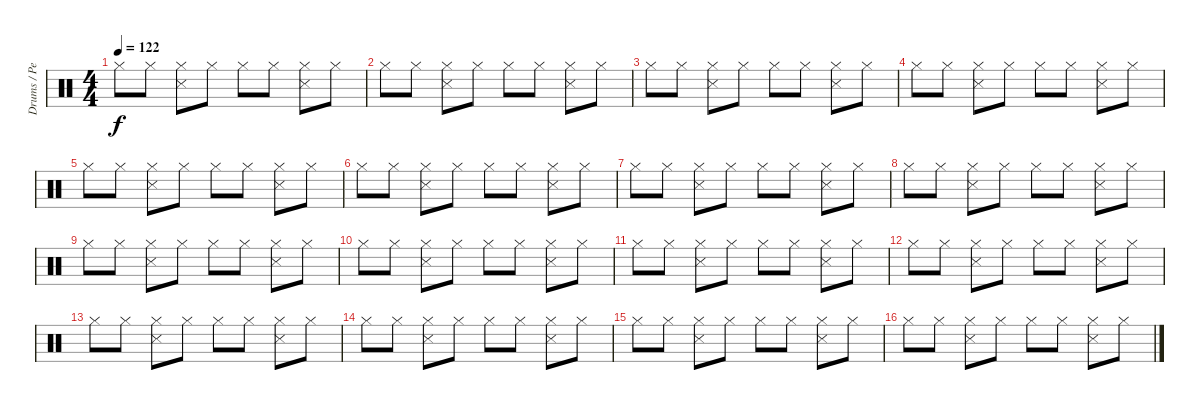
\track ("Drums / Percussion" "Drums / Pe") {instrument percussion}
\staff {score}
\articulation defaults
\ts (4 4)
\tempo 122
\clef neutral
\ks c "Hi-Hat (closed)".8{dy f} "Hi-Hat (closed)".8
("Hi-Hat (closed)" "Snare (side stick) 3").8 "Hi-Hat (closed)".8 "Hi-Hat (closed)".8 "Hi-Hat (closed)".8 ("Hi-Hat (closed)" "Snare (side stick) 3").8 "Hi-Hat (closed)".8 |
"Hi-Hat (closed)".8 "Hi-Hat (closed)".8 ("Hi-Hat (closed)" "Snare (side stick) 3").8 "Hi-Hat (closed)".8 "Hi-Hat (closed)".8 "Hi-Hat (closed)".8 ("Hi-Hat (closed)" "Snare (side stick) 3").8 "Hi-Hat (closed)".8 |
"Hi-Hat (closed)".8 "Hi-Hat (closed)".8 ("Hi-Hat (closed)" "Snare (side stick) 3").8 "Hi-Hat (closed)".8 "Hi-Hat (closed)".8 "Hi-Hat (closed)".8 ("Hi-Hat (closed)" "Snare (side stick) 3").8 "Hi-Hat (closed)".8 |
"Hi-Hat (closed)".8 "Hi-Hat (closed)".8 ("Hi-Hat (closed)" "Snare (side stick) 3").8 "Hi-Hat (closed)".8 "Hi-Hat (closed)".8 "Hi-Hat (closed)".8 ("Hi-Hat (closed)" "Snare (side stick) 3").8 "Hi-Hat (closed)".8 |
"Hi-Hat (closed)".8 "Hi-Hat (closed)".8 ("Hi-Hat (closed)" "Snare (side stick) 3").8 "Hi-Hat (closed)".8 "Hi-Hat (closed)".8 "Hi-Hat (closed)".8 ("Hi-Hat (closed)" "Snare (side stick) 3").8 "Hi-Hat (closed)".8 |
"Hi-Hat (closed)".8 "Hi-Hat (closed)".8 ("Hi-Hat (closed)" "Snare (side stick) 3").8 "Hi-Hat (closed)".8 "Hi-Hat (closed)".8 "Hi-Hat (closed)".8 ("Hi-Hat (closed)" "Snare (side stick) 3").8 "Hi-Hat (closed)".8 |
"Hi-Hat (closed)".8 "Hi-Hat (closed)".8 ("Hi-Hat (closed)" "Snare (side stick) 3").8 "Hi-Hat (closed)".8 "Hi-Hat (closed)".8 "Hi-Hat (closed)".8 ("Hi-Hat (closed)" "Snare (side stick) 3").8 "Hi-Hat (closed)".8 |
"Hi-Hat (closed)".8 "Hi-Hat (closed)".8 ("Hi-Hat (closed)" "Snare (side stick) 3").8 "Hi-Hat (closed)".8 "Hi-Hat (closed)".8 "Hi-Hat (closed)".8 ("Hi-Hat (closed)" "Snare (side stick) 3").8 "Hi-Hat (closed)".8 |
"Hi-Hat (closed)".8 "Hi-Hat (closed)".8 ("Hi-Hat (closed)" "Snare (side stick) 3").8 "Hi-Hat (closed)".8 "Hi-Hat (closed)".8 "Hi-Hat (closed)".8 ("Hi-Hat (closed)" "Snare (side stick) 3").8 "Hi-Hat (closed)".8 |
"Hi-Hat (closed)".8 "Hi-Hat (closed)".8 ("Hi-Hat (closed)" "Snare (side stick) 3").8 "Hi-Hat (closed)".8 "Hi-Hat (closed)".8 "Hi-Hat (closed)".8 ("Hi-Hat (closed)" "Snare (side stick) 3").8 "Hi-Hat (closed)".8 |
"Hi-Hat (closed)".8 "Hi-Hat (closed)".8 ("Hi-Hat (closed)" "Snare (side stick) 3").8 "Hi-Hat (closed)".8 "Hi-Hat (closed)".8 "Hi-Hat (closed)".8 ("Hi-Hat (closed)" "Snare (side stick) 3").8 "Hi-Hat (closed)".8 |
"Hi-Hat (closed)".8 "Hi-Hat (closed)".8 ("Hi-Hat (closed)" "Snare (side stick) 3").8 "Hi-Hat (closed)".8 "Hi-Hat (closed)".8 "Hi-Hat (closed)".8 ("Hi-Hat (closed)" "Snare (side stick) 3").8 "Hi-Hat (closed)".8 |
"Hi-Hat (closed)".8 "Hi-Hat (closed)".8 ("Hi-Hat (closed)" "Snare (side stick) 3").8 "Hi-Hat (closed)".8 "Hi-Hat (closed)".8 "Hi-Hat (closed)".8 ("Hi-Hat (closed)" "Snare (side stick) 3").8 "Hi-Hat (closed)".8 |
"Hi-Hat (closed)".8 "Hi-Hat (closed)".8 ("Hi-Hat (closed)" "Snare (side stick) 3").8 "Hi-Hat (closed)".8 "Hi-Hat (closed)".8 "Hi-Hat (closed)".8 ("Hi-Hat (closed)" "Snare (side stick) 3").8 "Hi-Hat (closed)".8 |
"Hi-Hat (closed)".8 "Hi-Hat (closed)".8 ("Hi-Hat (closed)" "Snare (side stick) 3").8 "Hi-Hat (closed)".8 "Hi-Hat (closed)".8 "Hi-Hat (closed)".8 ("Hi-Hat (closed)" "Snare (side stick) 3").8 "Hi-Hat (closed)".8 |
"Hi-Hat (closed)".8 "Hi-Hat (closed)".8 ("Hi-Hat (closed)" "Snare (side stick) 3").8 "Hi-Hat (closed)".8 "Hi-Hat (closed)".8 "Hi-Hat (closed)".8 ("Hi-Hat (closed)" "Snare (side stick) 3").8 "Hi-Hat (closed)".8
